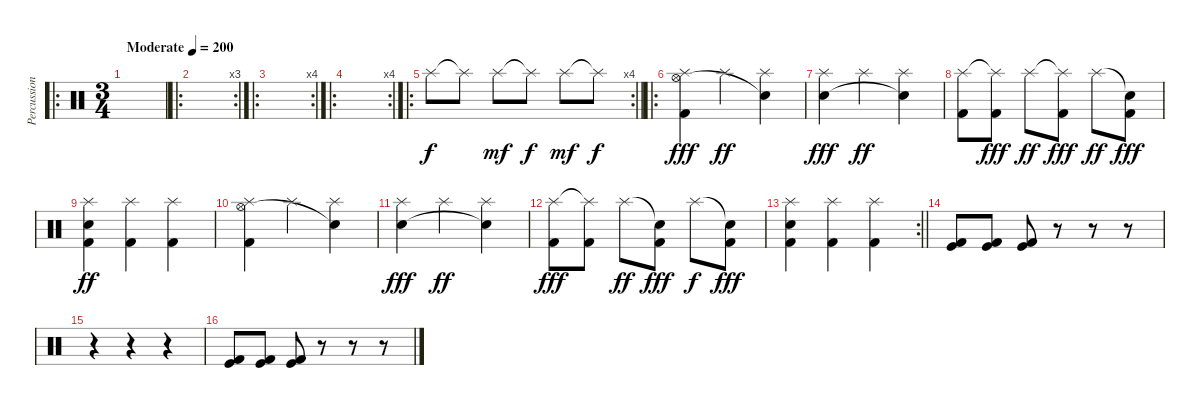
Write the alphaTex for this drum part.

\track ("Percussion" "Percussion") {instrument percussion}
\staff {score}
\articulation defaults
\ro
\ts (3 4)
\tempo (200 "Moderate")
\clef neutral
\ks c
|
\ro
\rc 3
|
\ro
\rc 4
|
\ro
\rc 4
|
\ro
\rc 4
\barLineRight lightlight "Splash (hit)".8 "Splash (hit)"{t}.8{dy f} "Splash (hit)".8{dy mf} "Splash (hit)"{t}.8{dy f} "Splash (hit)".8{dy mf} "Splash (hit)"{t}.8{dy f}
|
\ro
("Splash (hit)" "Hi-Hat (open)" "Kick (hit) 2").4{dy fff} "Splash (hit)".4{dy ff} ("Splash (hit)" "Snare (hit)"{t}).4 |
("Splash (hit)" "Electric Snare (hit)").4{dy fff} "Splash (hit)".4{dy ff} ("Splash (hit)" "Snare (hit)"{t}).4 |
("Splash (hit)" "Kick (hit) 2").8 ("Splash (hit)"{t} "Kick (hit) 2").8{dy fff} "Splash (hit)".8{dy ff} ("Splash (hit)"{t} "Kick (hit) 2").8{dy fff} "Splash (hit)".8{dy ff} ("Snare (hit)"{t} "Kick (hit) 2").8{dy fff} |
("Splash (hit)" "Electric Snare (hit)" "Kick (hit) 2").4{dy ff} ("Splash (hit)" "Kick (hit) 2").4 ("Splash (hit)" "Kick (hit) 2").4 |
("Splash (hit)" "Hi-Hat (open)" "Kick (hit) 2").4 "Splash (hit)".4 ("Splash (hit)" "Snare (hit)"{t}).4 |
("Splash (hit)" "Electric Snare (hit)").4{dy fff} "Splash (hit)".4{dy ff} ("Splash (hit)" "Snare (hit)"{t}).4 |
("Splash (hit)" "Kick (hit) 2").8{dy fff} ("Splash (hit)"{t} "Kick (hit) 2").8 "Splash (hit)".8{dy ff} ("Snare (hit)"{t} "Kick (hit) 2").8{dy fff} "Splash (hit)".8{dy f} ("Snare (hit)"{t} "Kick (hit) 2").8{dy fff} |
\rc 2
\barLineRight lightlight
("Splash (hit)" "Electric Snare (hit)" "Kick (hit) 2").4 ("Splash (hit)" "Kick (hit) 2").4 ("Splash (hit)" "Kick (hit) 2").4 |
("Kick (hit)" "Kick (hit) 2").8 ("Kick (hit)" "Kick (hit) 2").8 ("Kick (hit)" "Kick (hit) 2").8 r.8 r.8 r.8 |
r.4 r.4 r.4 |
("Kick (hit)" "Kick (hit) 2").8 ("Kick (hit)" "Kick (hit) 2").8 ("Kick (hit)" "Kick (hit) 2").8 r.8 r.8 r.8
